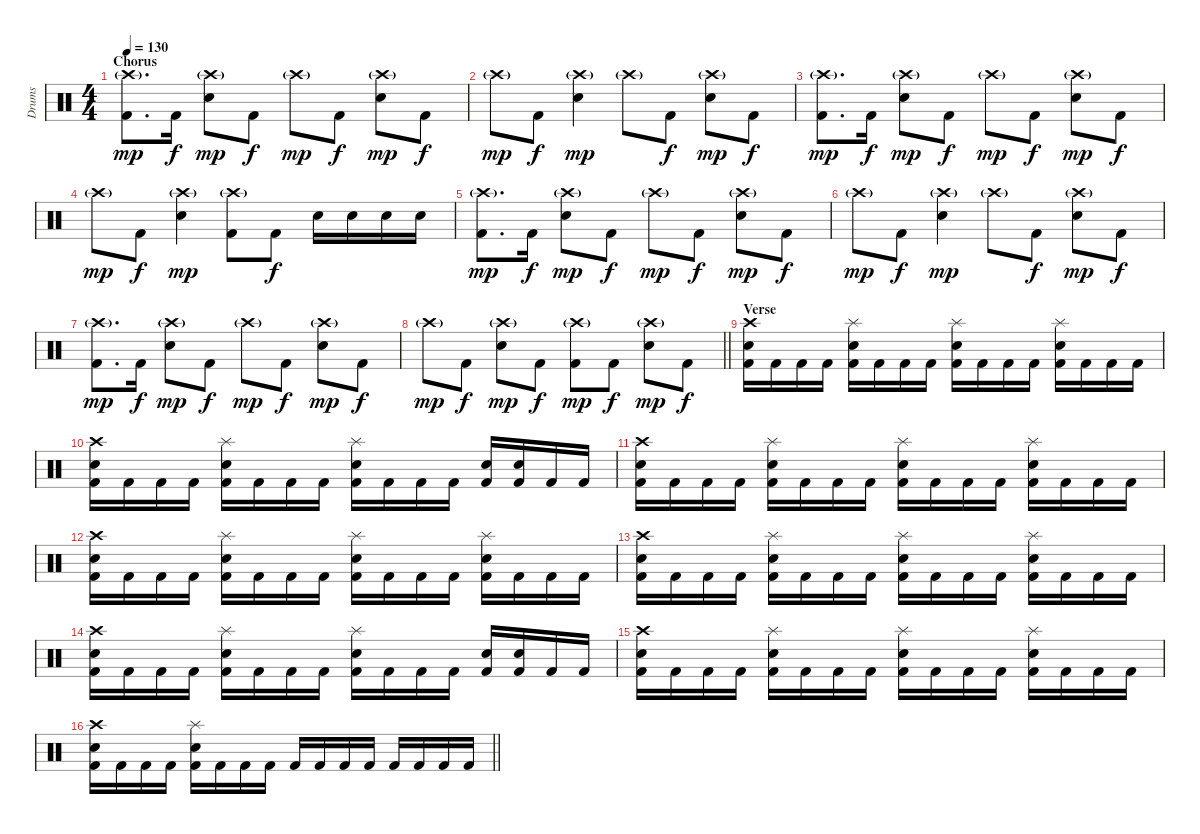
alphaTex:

\track ("Drums" "Drums") {instrument percussion}
\staff {score}
\articulation defaults
\ts (4 4)
\section ("" "Chorus")
\tempo 130
\clef neutral
\ks c
("Crash high (hit)"{g} "Kick (hit) 2").8{d dy mp} "Kick (hit) 2".16{dy f} ("Crash high (hit)"{g} "Electric Snare (hit)").8{dy mp} "Kick (hit) 2".8{dy f} "Crash high (hit)"{g}.8{dy mp} "Kick (hit) 2".8{dy f} ("Crash high (hit)"{g} "Electric Snare (hit)").8{dy mp} "Kick (hit) 2".8{dy f} |
"Crash high (hit)"{g}.8{dy mp} "Kick (hit) 2".8{dy f} ("Crash high (hit)"{g} "Electric Snare (hit)").4{dy mp} "Crash high (hit)"{g}.8 "Kick (hit) 2".8{dy f} ("Crash high (hit)"{g} "Electric Snare (hit)").8{dy mp} "Kick (hit) 2".8{dy f} |
("Crash high (hit)"{g} "Kick (hit) 2").8{d dy mp} "Kick (hit) 2".16{dy f} ("Crash high (hit)"{g} "Electric Snare (hit)").8{dy mp} "Kick (hit) 2".8{dy f} "Crash high (hit)"{g}.8{dy mp} "Kick (hit) 2".8{dy f} ("Crash high (hit)"{g} "Electric Snare (hit)").8{dy mp} "Kick (hit) 2".8{dy f} |
"Crash high (hit)"{g}.8{dy mp} "Kick (hit) 2".8{dy f} ("Crash high (hit)"{g} "Electric Snare (hit)").4{dy mp} ("Crash high (hit)"{g} "Kick (hit) 2").8 "Kick (hit) 2".8{dy f} "Electric Snare (hit)".16 "Electric Snare (hit)".16 "Electric Snare (hit)".16 "Electric Snare (hit)".16 |
("Crash high (hit)"{g} "Kick (hit) 2").8{d dy mp} "Kick (hit) 2".16{dy f} ("Crash high (hit)"{g} "Electric Snare (hit)").8{dy mp} "Kick (hit) 2".8{dy f} "Crash high (hit)"{g}.8{dy mp} "Kick (hit) 2".8{dy f} ("Crash high (hit)"{g} "Electric Snare (hit)").8{dy mp} "Kick (hit) 2".8{dy f} |
"Crash high (hit)"{g}.8{dy mp} "Kick (hit) 2".8{dy f} ("Crash high (hit)"{g} "Electric Snare (hit)").4{dy mp} "Crash high (hit)"{g}.8 "Kick (hit) 2".8{dy f} ("Crash high (hit)"{g} "Electric Snare (hit)").8{dy mp} "Kick (hit) 2".8{dy f} |
("Crash high (hit)"{g} "Kick (hit) 2").8{d dy mp} "Kick (hit) 2".16{dy f} ("Crash high (hit)"{g} "Electric Snare (hit)").8{dy mp} "Kick (hit) 2".8{dy f} "Crash high (hit)"{g}.8{dy mp} "Kick (hit) 2".8{dy f} ("Crash high (hit)"{g} "Electric Snare (hit)").8{dy mp} "Kick (hit) 2".8{dy f} |
\barLineRight lightlight "Crash high (hit)"{g}.8{dy mp} "Kick (hit) 2".8{dy f}
("Crash high (hit)"{g} "Electric Snare (hit)").8{dy mp} "Kick (hit) 2".8{dy f} ("Crash high (hit)"{g} "Kick (hit) 2").8{dy mp} "Kick (hit) 2".8{dy f} ("Crash high (hit)"{g} "Electric Snare (hit)").8{dy mp} "Kick (hit) 2".8{dy f} |
\section ("" "Verse")
("Crash high (hit)" "Electric Snare (hit)" "Kick (hit) 2").16 "Kick (hit) 2".16 "Kick (hit) 2".16 "Kick (hit) 2".16 ("Splash (hit)" "Electric Snare (hit)" "Kick (hit) 2").16 "Kick (hit) 2".16 "Kick (hit) 2".16 "Kick (hit) 2".16 ("Splash (hit)" "Electric Snare (hit)" "Kick (hit) 2").16 "Kick (hit) 2".16 "Kick (hit) 2".16 "Kick (hit) 2".16 ("Splash (hit)" "Electric Snare (hit)" "Kick (hit) 2").16 "Kick (hit) 2".16 "Kick (hit) 2".16 "Kick (hit) 2".16 |
("Crash high (hit)" "Electric Snare (hit)" "Kick (hit) 2").16 "Kick (hit) 2".16 "Kick (hit) 2".16 "Kick (hit) 2".16 ("Splash (hit)" "Electric Snare (hit)" "Kick (hit) 2").16 "Kick (hit) 2".16 "Kick (hit) 2".16 "Kick (hit) 2".16 ("Splash (hit)" "Electric Snare (hit)" "Kick (hit) 2").16 "Kick (hit) 2".16 "Kick (hit) 2".16 "Kick (hit) 2".16 ("Electric Snare (hit)" "Kick (hit) 2").16 ("Electric Snare (hit)" "Kick (hit) 2").16 "Kick (hit) 2".16 "Kick (hit) 2".16 |
("Crash high (hit)" "Electric Snare (hit)" "Kick (hit) 2").16 "Kick (hit) 2".16 "Kick (hit) 2".16 "Kick (hit) 2".16 ("Splash (hit)" "Electric Snare (hit)" "Kick (hit) 2").16 "Kick (hit) 2".16 "Kick (hit) 2".16 "Kick (hit) 2".16 ("Splash (hit)" "Electric Snare (hit)" "Kick (hit) 2").16 "Kick (hit) 2".16 "Kick (hit) 2".16 "Kick (hit) 2".16 ("Splash (hit)" "Electric Snare (hit)" "Kick (hit) 2").16 "Kick (hit) 2".16 "Kick (hit) 2".16 "Kick (hit) 2".16 |
("Crash high (hit)" "Electric Snare (hit)" "Kick (hit) 2").16 "Kick (hit) 2".16 "Kick (hit) 2".16 "Kick (hit) 2".16 ("Splash (hit)" "Electric Snare (hit)" "Kick (hit) 2").16 "Kick (hit) 2".16 "Kick (hit) 2".16 "Kick (hit) 2".16 ("Splash (hit)" "Electric Snare (hit)" "Kick (hit) 2").16 "Kick (hit) 2".16 "Kick (hit) 2".16 "Kick (hit) 2".16 ("Splash (hit)" "Electric Snare (hit)" "Kick (hit) 2").16 "Kick (hit) 2".16 "Kick (hit) 2".16 "Kick (hit) 2".16 |
("Crash high (hit)" "Electric Snare (hit)" "Kick (hit) 2").16 "Kick (hit) 2".16 "Kick (hit) 2".16 "Kick (hit) 2".16 ("Splash (hit)" "Electric Snare (hit)" "Kick (hit) 2").16 "Kick (hit) 2".16 "Kick (hit) 2".16 "Kick (hit) 2".16 ("Splash (hit)" "Electric Snare (hit)" "Kick (hit) 2").16 "Kick (hit) 2".16 "Kick (hit) 2".16 "Kick (hit) 2".16 ("Splash (hit)" "Electric Snare (hit)" "Kick (hit) 2").16 "Kick (hit) 2".16 "Kick (hit) 2".16 "Kick (hit) 2".16 |
("Crash high (hit)" "Electric Snare (hit)" "Kick (hit) 2").16 "Kick (hit) 2".16 "Kick (hit) 2".16 "Kick (hit) 2".16 ("Splash (hit)" "Electric Snare (hit)" "Kick (hit) 2").16 "Kick (hit) 2".16 "Kick (hit) 2".16 "Kick (hit) 2".16 ("Splash (hit)" "Electric Snare (hit)" "Kick (hit) 2").16 "Kick (hit) 2".16 "Kick (hit) 2".16 "Kick (hit) 2".16 ("Electric Snare (hit)" "Kick (hit) 2").16 ("Electric Snare (hit)" "Kick (hit) 2").16 "Kick (hit) 2".16 "Kick (hit) 2".16 |
("Crash high (hit)" "Electric Snare (hit)" "Kick (hit) 2").16 "Kick (hit) 2".16 "Kick (hit) 2".16 "Kick (hit) 2".16 ("Splash (hit)" "Electric Snare (hit)" "Kick (hit) 2").16 "Kick (hit) 2".16 "Kick (hit) 2".16 "Kick (hit) 2".16 ("Splash (hit)" "Electric Snare (hit)" "Kick (hit) 2").16 "Kick (hit) 2".16 "Kick (hit) 2".16 "Kick (hit) 2".16 ("Splash (hit)" "Electric Snare (hit)" "Kick (hit) 2").16 "Kick (hit) 2".16 "Kick (hit) 2".16 "Kick (hit) 2".16 |
\barLineRight lightlight
("Crash high (hit)" "Electric Snare (hit)" "Kick (hit) 2").16 "Kick (hit) 2".16 "Kick (hit) 2".16 "Kick (hit) 2".16 ("Splash (hit)" "Electric Snare (hit)" "Kick (hit) 2").16 "Kick (hit) 2".16 "Kick (hit) 2".16 "Kick (hit) 2".16 "Kick (hit) 2".16 "Kick (hit) 2".16 "Kick (hit) 2".16 "Kick (hit) 2".16 "Kick (hit) 2".16 "Kick (hit) 2".16 "Kick (hit) 2".16 "Kick (hit) 2".16
